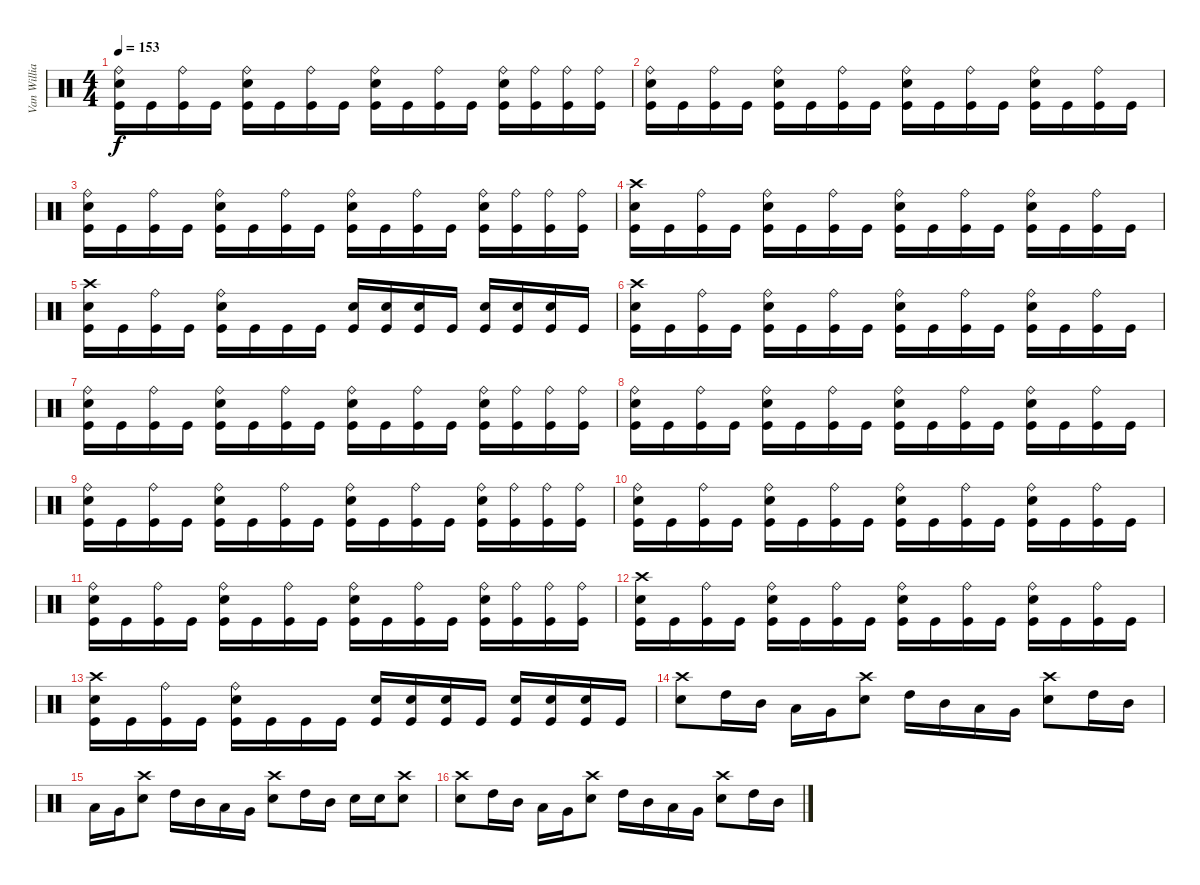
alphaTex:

\track ("Van Williams" "Van Willia") {instrument percussion}
\staff {score}
\articulation defaults
\ts (4 4)
\tempo 153
\clef neutral
\ks c
("Ride (bell)" "Electric Snare (hit)" "Kick (hit)").16{dy f} "Kick (hit)".16 ("Ride (bell)" "Kick (hit)").16 "Kick (hit)".16 ("Ride (bell)" "Electric Snare (hit)" "Kick (hit)").16 "Kick (hit)".16 ("Ride (bell)" "Kick (hit)").16 "Kick (hit)".16 ("Ride (bell)" "Electric Snare (hit)" "Kick (hit)").16 "Kick (hit)".16 ("Ride (bell)" "Kick (hit)").16 "Kick (hit)".16 ("Ride (bell)" "Electric Snare (hit)" "Kick (hit)").16 ("Ride (bell)" "Kick (hit)").16 ("Ride (bell)" "Kick (hit)").16 ("Ride (bell)" "Kick (hit)").16 |
("Ride (bell)" "Electric Snare (hit)" "Kick (hit)").16 "Kick (hit)".16 ("Ride (bell)" "Kick (hit)").16 "Kick (hit)".16 ("Ride (bell)" "Electric Snare (hit)" "Kick (hit)").16 "Kick (hit)".16 ("Ride (bell)" "Kick (hit)").16 "Kick (hit)".16 ("Ride (bell)" "Electric Snare (hit)" "Kick (hit)").16 "Kick (hit)".16 ("Ride (bell)" "Kick (hit)").16 "Kick (hit)".16 ("Ride (bell)" "Electric Snare (hit)" "Kick (hit)").16 "Kick (hit)".16 ("Ride (bell)" "Kick (hit)").16 "Kick (hit)".16 |
("Ride (bell)" "Electric Snare (hit)" "Kick (hit)").16 "Kick (hit)".16 ("Ride (bell)" "Kick (hit)").16 "Kick (hit)".16 ("Ride (bell)" "Electric Snare (hit)" "Kick (hit)").16 "Kick (hit)".16 ("Ride (bell)" "Kick (hit)").16 "Kick (hit)".16 ("Ride (bell)" "Electric Snare (hit)" "Kick (hit)").16 "Kick (hit)".16 ("Ride (bell)" "Kick (hit)").16 "Kick (hit)".16 ("Ride (bell)" "Electric Snare (hit)" "Kick (hit)").16 ("Ride (bell)" "Kick (hit)").16 ("Ride (bell)" "Kick (hit)").16 ("Ride (bell)" "Kick (hit)").16 |
("Crash high (hit)" "Electric Snare (hit)" "Kick (hit)").16 "Kick (hit)".16 ("Ride (bell)" "Kick (hit)").16 "Kick (hit)".16 ("Ride (bell)" "Electric Snare (hit)" "Kick (hit)").16 "Kick (hit)".16 ("Ride (bell)" "Kick (hit)").16 "Kick (hit)".16 ("Ride (bell)" "Electric Snare (hit)" "Kick (hit)").16 "Kick (hit)".16 ("Ride (bell)" "Kick (hit)").16 "Kick (hit)".16 ("Ride (bell)" "Electric Snare (hit)" "Kick (hit)").16 "Kick (hit)".16 ("Ride (bell)" "Kick (hit)").16 "Kick (hit)".16 |
("Crash high (hit)" "Electric Snare (hit)" "Kick (hit)").16 "Kick (hit)".16 ("Ride (bell)" "Kick (hit)").16 "Kick (hit)".16 ("Ride (bell)" "Electric Snare (hit)" "Kick (hit)").16 "Kick (hit)".16 "Kick (hit)".16 "Kick (hit)".16 ("Electric Snare (hit)" "Kick (hit)").16 ("Electric Snare (hit)" "Kick (hit)").16 ("Electric Snare (hit)" "Kick (hit)").16 "Kick (hit)".16 ("Electric Snare (hit)" "Kick (hit)").16 ("Electric Snare (hit)" "Kick (hit)").16 ("Electric Snare (hit)" "Kick (hit)").16 "Kick (hit)".16 |
("Crash high (hit)" "Electric Snare (hit)" "Kick (hit)").16 "Kick (hit)".16 ("Ride (bell)" "Kick (hit)").16 "Kick (hit)".16 ("Ride (bell)" "Electric Snare (hit)" "Kick (hit)").16 "Kick (hit)".16 ("Ride (bell)" "Kick (hit)").16 "Kick (hit)".16 ("Ride (bell)" "Electric Snare (hit)" "Kick (hit)").16 "Kick (hit)".16 ("Ride (bell)" "Kick (hit)").16 "Kick (hit)".16 ("Ride (bell)" "Electric Snare (hit)" "Kick (hit)").16 "Kick (hit)".16 ("Ride (bell)" "Kick (hit)").16 "Kick (hit)".16 |
("Ride (bell)" "Electric Snare (hit)" "Kick (hit)").16 "Kick (hit)".16 ("Ride (bell)" "Kick (hit)").16 "Kick (hit)".16 ("Ride (bell)" "Electric Snare (hit)" "Kick (hit)").16 "Kick (hit)".16 ("Ride (bell)" "Kick (hit)").16 "Kick (hit)".16 ("Ride (bell)" "Electric Snare (hit)" "Kick (hit)").16 "Kick (hit)".16 ("Ride (bell)" "Kick (hit)").16 "Kick (hit)".16 ("Ride (bell)" "Electric Snare (hit)" "Kick (hit)").16 ("Ride (bell)" "Kick (hit)").16 ("Ride (bell)" "Kick (hit)").16 ("Ride (bell)" "Kick (hit)").16 |
("Ride (bell)" "Electric Snare (hit)" "Kick (hit)").16 "Kick (hit)".16 ("Ride (bell)" "Kick (hit)").16 "Kick (hit)".16 ("Ride (bell)" "Electric Snare (hit)" "Kick (hit)").16 "Kick (hit)".16 ("Ride (bell)" "Kick (hit)").16 "Kick (hit)".16 ("Ride (bell)" "Electric Snare (hit)" "Kick (hit)").16 "Kick (hit)".16 ("Ride (bell)" "Kick (hit)").16 "Kick (hit)".16 ("Ride (bell)" "Electric Snare (hit)" "Kick (hit)").16 "Kick (hit)".16 ("Ride (bell)" "Kick (hit)").16 "Kick (hit)".16 |
("Ride (bell)" "Electric Snare (hit)" "Kick (hit)").16 "Kick (hit)".16 ("Ride (bell)" "Kick (hit)").16 "Kick (hit)".16 ("Ride (bell)" "Electric Snare (hit)" "Kick (hit)").16 "Kick (hit)".16 ("Ride (bell)" "Kick (hit)").16 "Kick (hit)".16 ("Ride (bell)" "Electric Snare (hit)" "Kick (hit)").16 "Kick (hit)".16 ("Ride (bell)" "Kick (hit)").16 "Kick (hit)".16 ("Ride (bell)" "Electric Snare (hit)" "Kick (hit)").16 ("Ride (bell)" "Kick (hit)").16 ("Ride (bell)" "Kick (hit)").16 ("Ride (bell)" "Kick (hit)").16 |
("Ride (bell)" "Electric Snare (hit)" "Kick (hit)").16 "Kick (hit)".16 ("Ride (bell)" "Kick (hit)").16 "Kick (hit)".16 ("Ride (bell)" "Electric Snare (hit)" "Kick (hit)").16 "Kick (hit)".16 ("Ride (bell)" "Kick (hit)").16 "Kick (hit)".16 ("Ride (bell)" "Electric Snare (hit)" "Kick (hit)").16 "Kick (hit)".16 ("Ride (bell)" "Kick (hit)").16 "Kick (hit)".16 ("Ride (bell)" "Electric Snare (hit)" "Kick (hit)").16 "Kick (hit)".16 ("Ride (bell)" "Kick (hit)").16 "Kick (hit)".16 |
("Ride (bell)" "Electric Snare (hit)" "Kick (hit)").16 "Kick (hit)".16 ("Ride (bell)" "Kick (hit)").16 "Kick (hit)".16 ("Ride (bell)" "Electric Snare (hit)" "Kick (hit)").16 "Kick (hit)".16 ("Ride (bell)" "Kick (hit)").16 "Kick (hit)".16 ("Ride (bell)" "Electric Snare (hit)" "Kick (hit)").16 "Kick (hit)".16 ("Ride (bell)" "Kick (hit)").16 "Kick (hit)".16 ("Ride (bell)" "Electric Snare (hit)" "Kick (hit)").16 ("Ride (bell)" "Kick (hit)").16 ("Ride (bell)" "Kick (hit)").16 ("Ride (bell)" "Kick (hit)").16 |
("Crash high (hit)" "Electric Snare (hit)" "Kick (hit)").16 "Kick (hit)".16 ("Ride (bell)" "Kick (hit)").16 "Kick (hit)".16 ("Ride (bell)" "Electric Snare (hit)" "Kick (hit)").16 "Kick (hit)".16 ("Ride (bell)" "Kick (hit)").16 "Kick (hit)".16 ("Ride (bell)" "Electric Snare (hit)" "Kick (hit)").16 "Kick (hit)".16 ("Ride (bell)" "Kick (hit)").16 "Kick (hit)".16 ("Ride (bell)" "Electric Snare (hit)" "Kick (hit)").16 "Kick (hit)".16 ("Ride (bell)" "Kick (hit)").16 "Kick (hit)".16 |
("Crash high (hit)" "Electric Snare (hit)" "Kick (hit)").16 "Kick (hit)".16 ("Ride (bell)" "Kick (hit)").16 "Kick (hit)".16 ("Ride (bell)" "Electric Snare (hit)" "Kick (hit)").16 "Kick (hit)".16 "Kick (hit)".16 "Kick (hit)".16 ("Electric Snare (hit)" "Kick (hit)").16 ("Electric Snare (hit)" "Kick (hit)").16 ("Electric Snare (hit)" "Kick (hit)").16 "Kick (hit)".16 ("Electric Snare (hit)" "Kick (hit)").16 ("Electric Snare (hit)" "Kick (hit)").16 ("Electric Snare (hit)" "Kick (hit)").16 "Kick (hit)".16 |
("Crash high (hit)" "Electric Snare (hit)").8 "High Tom (hit)".16 "Mid Tom (hit)".16 "Low Tom (hit)".16 "Very Low Tom (hit)".16 ("Crash high (hit)" "Electric Snare (hit)").8 "High Tom (hit)".16 "Mid Tom (hit)".16 "Low Tom (hit)".16 "Very Low Tom (hit)".16 ("Crash high (hit)" "Electric Snare (hit)").8 "High Tom (hit)".16 "Mid Tom (hit)".16 |
"Low Tom (hit)".16 "Very Low Tom (hit)".16 ("Crash high (hit)" "Electric Snare (hit)").8 "High Tom (hit)".16 "Mid Tom (hit)".16 "Low Tom (hit)".16 "Very Low Tom (hit)".16 ("Crash high (hit)" "Electric Snare (hit)").8 "High Tom (hit)".16 "Mid Tom (hit)".16 "Electric Snare (hit)".16 "Electric Snare (hit)".16 ("Crash high (hit)" "Electric Snare (hit)").8 |
("Crash high (hit)" "Electric Snare (hit)").8 "High Tom (hit)".16 "Mid Tom (hit)".16 "Low Tom (hit)".16 "Very Low Tom (hit)".16 ("Crash high (hit)" "Electric Snare (hit)").8 "High Tom (hit)".16 "Mid Tom (hit)".16 "Low Tom (hit)".16 "Very Low Tom (hit)".16 ("Crash high (hit)" "Electric Snare (hit)").8 "High Tom (hit)".16 "Mid Tom (hit)".16
